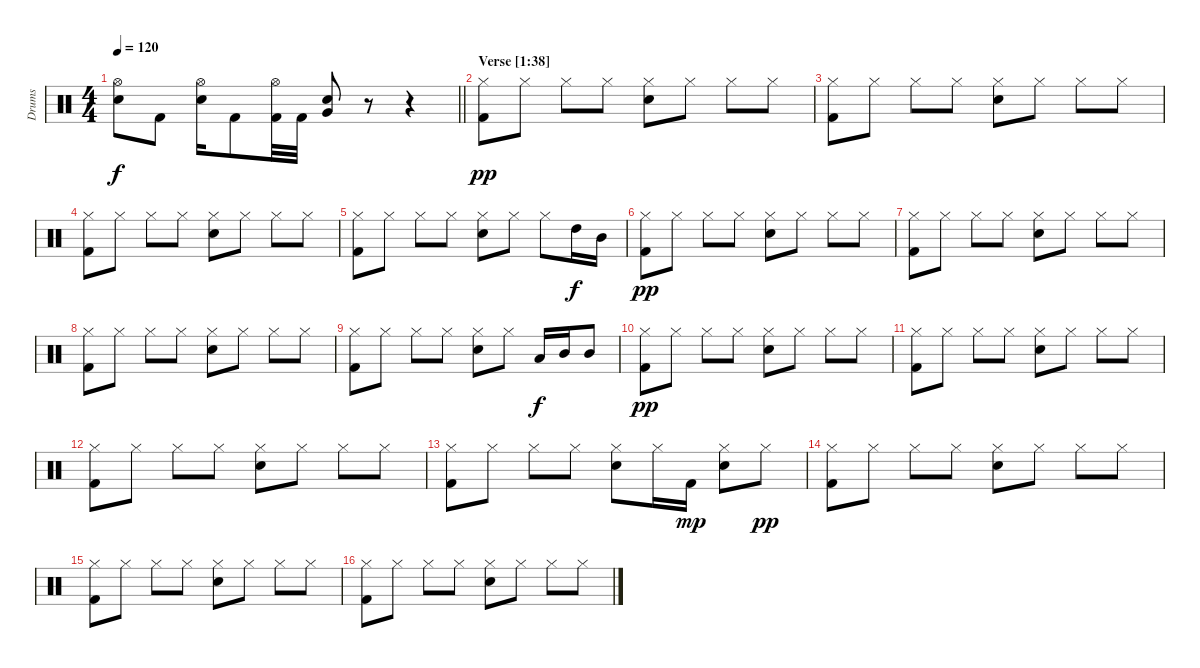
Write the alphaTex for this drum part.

\track ("Drums" "Drums") {instrument percussion}
\staff {score}
\articulation defaults
\ts (4 4)
\tempo 120
\clef neutral
\barLineRight lightlight
\ks c
("Hi-Hat (open)" "Snare (hit) 2").8{dy f} "Kick (hit) 2".8 ("Hi-Hat (open)" "Snare (hit) 2").16 "Kick (hit) 2".8 ("Hi-Hat (open)" "Kick (hit) 2").32 "Kick (hit) 2".32 ("Very Low Tom (hit)" "Snare (hit) 2").8 r.8 r.4 |
\section ("" "Verse [1:38]")
("Hi-Hat (closed)" "Kick (hit) 2").8{dy pp} "Hi-Hat (closed)".8 "Hi-Hat (closed)".8 "Hi-Hat (closed)".8 ("Hi-Hat (closed)" "Snare (hit) 2").8 "Hi-Hat (closed)".8 "Hi-Hat (closed)".8 "Hi-Hat (closed)".8 |
("Hi-Hat (closed)" "Kick (hit) 2").8 "Hi-Hat (closed)".8 "Hi-Hat (closed)".8 "Hi-Hat (closed)".8 ("Hi-Hat (closed)" "Snare (hit) 2").8 "Hi-Hat (closed)".8 "Hi-Hat (closed)".8 "Hi-Hat (closed)".8 |
("Hi-Hat (closed)" "Kick (hit) 2").8 "Hi-Hat (closed)".8 "Hi-Hat (closed)".8 "Hi-Hat (closed)".8 ("Hi-Hat (closed)" "Snare (hit) 2").8 "Hi-Hat (closed)".8 "Hi-Hat (closed)".8 "Hi-Hat (closed)".8 |
("Hi-Hat (closed)" "Kick (hit) 2").8 "Hi-Hat (closed)".8 "Hi-Hat (closed)".8 "Hi-Hat (closed)".8 ("Hi-Hat (closed)" "Snare (hit) 2").8 "Hi-Hat (closed)".8 "Hi-Hat (closed)".8 "High Tom (hit)".16{dy f} "Mid Tom (hit)".16 |
("Hi-Hat (closed)" "Kick (hit) 2").8{dy pp} "Hi-Hat (closed)".8 "Hi-Hat (closed)".8 "Hi-Hat (closed)".8 ("Hi-Hat (closed)" "Snare (hit) 2").8 "Hi-Hat (closed)".8 "Hi-Hat (closed)".8 "Hi-Hat (closed)".8 |
("Hi-Hat (closed)" "Kick (hit) 2").8 "Hi-Hat (closed)".8 "Hi-Hat (closed)".8 "Hi-Hat (closed)".8 ("Hi-Hat (closed)" "Snare (hit) 2").8 "Hi-Hat (closed)".8 "Hi-Hat (closed)".8 "Hi-Hat (closed)".8 |
("Hi-Hat (closed)" "Kick (hit) 2").8 "Hi-Hat (closed)".8 "Hi-Hat (closed)".8 "Hi-Hat (closed)".8 ("Hi-Hat (closed)" "Snare (hit) 2").8 "Hi-Hat (closed)".8 "Hi-Hat (closed)".8 "Hi-Hat (closed)".8 |
("Hi-Hat (closed)" "Kick (hit) 2").8 "Hi-Hat (closed)".8 "Hi-Hat (closed)".8 "Hi-Hat (closed)".8 ("Hi-Hat (closed)" "Snare (hit) 2").8 "Hi-Hat (closed)".8 "Low Tom (hit)".16{dy f} "Mid Tom (hit)".16 "Mid Tom (hit)".8 |
("Hi-Hat (closed)" "Kick (hit) 2").8{dy pp} "Hi-Hat (closed)".8 "Hi-Hat (closed)".8 "Hi-Hat (closed)".8 ("Hi-Hat (closed)" "Snare (hit) 2").8 "Hi-Hat (closed)".8 "Hi-Hat (closed)".8 "Hi-Hat (closed)".8 |
("Hi-Hat (closed)" "Kick (hit) 2").8 "Hi-Hat (closed)".8 "Hi-Hat (closed)".8 "Hi-Hat (closed)".8 ("Hi-Hat (closed)" "Snare (hit) 2").8 "Hi-Hat (closed)".8 "Hi-Hat (closed)".8 "Hi-Hat (closed)".8 |
("Hi-Hat (closed)" "Kick (hit) 2").8 "Hi-Hat (closed)".8 "Hi-Hat (closed)".8 "Hi-Hat (closed)".8 ("Hi-Hat (closed)" "Snare (hit) 2").8 "Hi-Hat (closed)".8 "Hi-Hat (closed)".8 "Hi-Hat (closed)".8 |
("Hi-Hat (closed)" "Kick (hit) 2").8 "Hi-Hat (closed)".8 "Hi-Hat (closed)".8 "Hi-Hat (closed)".8 ("Hi-Hat (closed)" "Snare (hit) 2").8 "Hi-Hat (closed)".16 "Kick (hit) 2".16{dy mp} ("Hi-Hat (closed)" "Snare (hit) 2").8 "Hi-Hat (closed)".8{dy pp} |
("Hi-Hat (closed)" "Kick (hit) 2").8 "Hi-Hat (closed)".8 "Hi-Hat (closed)".8 "Hi-Hat (closed)".8 ("Hi-Hat (closed)" "Snare (hit) 2").8 "Hi-Hat (closed)".8 "Hi-Hat (closed)".8 "Hi-Hat (closed)".8 |
("Hi-Hat (closed)" "Kick (hit) 2").8 "Hi-Hat (closed)".8 "Hi-Hat (closed)".8 "Hi-Hat (closed)".8 ("Hi-Hat (closed)" "Snare (hit) 2").8 "Hi-Hat (closed)".8 "Hi-Hat (closed)".8 "Hi-Hat (closed)".8 |
("Hi-Hat (closed)" "Kick (hit) 2").8 "Hi-Hat (closed)".8 "Hi-Hat (closed)".8 "Hi-Hat (closed)".8 ("Hi-Hat (closed)" "Snare (hit) 2").8 "Hi-Hat (closed)".8 "Hi-Hat (closed)".8 "Hi-Hat (closed)".8
